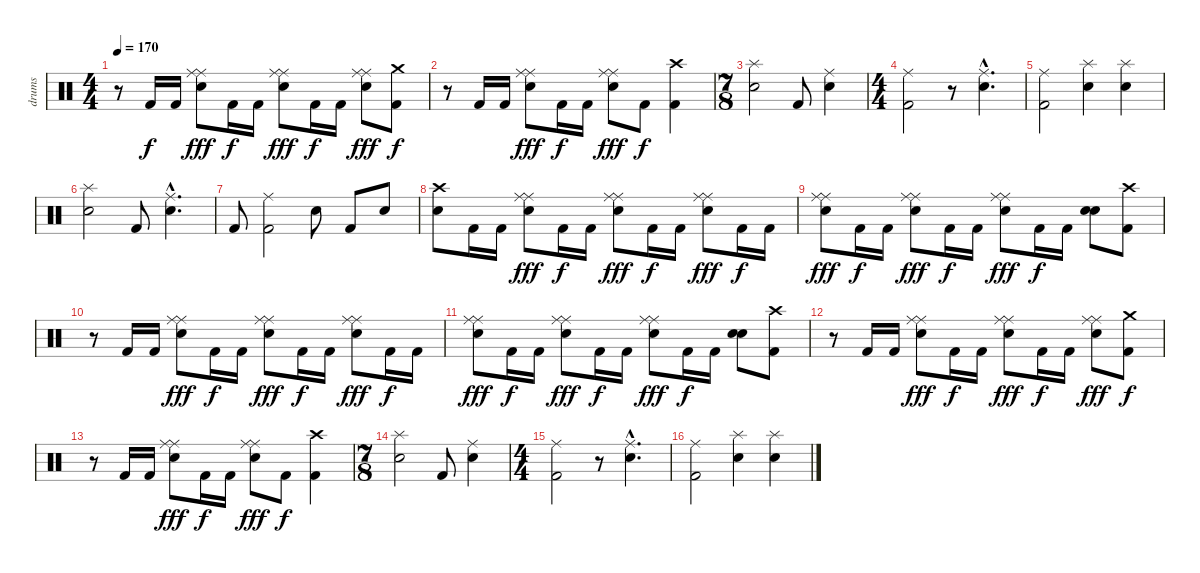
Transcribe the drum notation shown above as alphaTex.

\track ("drums" "drums") {instrument percussion}
\staff {score}
\articulation defaults
\ts (4 4)
\tempo 170
\clef neutral
\ks c
r.8{dy f} "Kick (hit) 2".16 "Kick (hit) 2".16 ("Ride (middle)" "Ride (middle)" "Snare (hit) 2").8{dy fff} "Kick (hit) 2".16{dy f} "Kick (hit) 2".16 ("Ride (middle)" "Ride (middle)" "Snare (hit) 2").8{dy fff} "Kick (hit) 2".16{dy f} "Kick (hit) 2".16 ("Ride (middle)" "Ride (middle)" "Snare (hit) 2").8{dy fff} ("Crash medium (hit)" "Kick (hit) 2").8{dy f} |
r.8 "Kick (hit) 2".16 "Kick (hit) 2".16 ("Ride (middle)" "Ride (middle)" "Snare (hit) 2").8{dy fff} "Kick (hit) 2".16{dy f} "Kick (hit) 2".16 ("Ride (middle)" "Ride (middle)" "Snare (hit) 2").8{dy fff} "Kick (hit) 2".8{dy f} ("Crash high (hit)" "Kick (hit) 2").4 |
\ts (7 8)
("Splash (hit)" "Snare (hit) 2").2 "Kick (hit) 2".8 ("Ride (middle)" "Snare (hit) 2").4 |
\ts (4 4)
("Ride (middle)" "Kick (hit) 2").2 r.8 ("Ride (middle)"{hac} "Snare (hit) 2"{hac}).4{d} |
("Ride (middle)" "Kick (hit) 2").2 ("Splash (hit)" "Snare (hit) 2").4 ("Splash (hit)" "Snare (hit) 2").4 |
("Splash (hit)" "Snare (hit) 2").2 "Kick (hit) 2".8 ("Ride (middle)"{hac} "Snare (hit) 2"{hac}).4{d} |
"Kick (hit) 2".8 ("Ride (middle)" "Kick (hit) 2").2 "Snare (hit) 2".8 "Kick (hit) 2".8 "Snare (hit) 2".8 |
("Crash high (hit)" "Snare (hit) 2").8 "Kick (hit) 2".16 "Kick (hit) 2".16 ("Ride (middle)" "Ride (middle)" "Snare (hit) 2").8{dy fff} "Kick (hit) 2".16{dy f} "Kick (hit) 2".16 ("Ride (middle)" "Ride (middle)" "Snare (hit) 2").8{dy fff} "Kick (hit) 2".16{dy f} "Kick (hit) 2".16 ("Ride (middle)" "Ride (middle)" "Snare (hit) 2").8{dy fff} "Kick (hit) 2".16{dy f} "Kick (hit) 2".16 |
("Ride (middle)" "Ride (middle)" "Snare (hit) 2").8{dy fff} "Kick (hit) 2".16{dy f} "Kick (hit) 2".16 ("Ride (middle)" "Ride (middle)" "Snare (hit) 2").8{dy fff} "Kick (hit) 2".16{dy f} "Kick (hit) 2".16 ("Ride (middle)" "Ride (middle)" "Snare (hit) 2").8{dy fff} "Kick (hit) 2".16{dy f} "Kick (hit) 2".16 ("Snare (hit) 2" "Snare (hit) 2").8 ("Crash high (hit)" "Kick (hit) 2").8 |
r.8 "Kick (hit) 2".16 "Kick (hit) 2".16 ("Ride (middle)" "Ride (middle)" "Snare (hit) 2").8{dy fff} "Kick (hit) 2".16{dy f} "Kick (hit) 2".16 ("Ride (middle)" "Ride (middle)" "Snare (hit) 2").8{dy fff} "Kick (hit) 2".16{dy f} "Kick (hit) 2".16 ("Ride (middle)" "Ride (middle)" "Snare (hit) 2").8{dy fff} "Kick (hit) 2".16{dy f} "Kick (hit) 2".16 |
("Ride (middle)" "Ride (middle)" "Snare (hit) 2").8{dy fff} "Kick (hit) 2".16{dy f} "Kick (hit) 2".16 ("Ride (middle)" "Ride (middle)" "Snare (hit) 2").8{dy fff} "Kick (hit) 2".16{dy f} "Kick (hit) 2".16 ("Ride (middle)" "Ride (middle)" "Snare (hit) 2").8{dy fff} "Kick (hit) 2".16{dy f} "Kick (hit) 2".16 ("Snare (hit) 2" "Snare (hit) 2").8 ("Crash high (hit)" "Kick (hit) 2").8 |
r.8 "Kick (hit) 2".16 "Kick (hit) 2".16 ("Ride (middle)" "Ride (middle)" "Snare (hit) 2").8{dy fff} "Kick (hit) 2".16{dy f} "Kick (hit) 2".16 ("Ride (middle)" "Ride (middle)" "Snare (hit) 2").8{dy fff} "Kick (hit) 2".16{dy f} "Kick (hit) 2".16 ("Ride (middle)" "Ride (middle)" "Snare (hit) 2").8{dy fff} ("Crash medium (hit)" "Kick (hit) 2").8{dy f} |
r.8 "Kick (hit) 2".16 "Kick (hit) 2".16 ("Ride (middle)" "Ride (middle)" "Snare (hit) 2").8{dy fff} "Kick (hit) 2".16{dy f} "Kick (hit) 2".16 ("Ride (middle)" "Ride (middle)" "Snare (hit) 2").8{dy fff} "Kick (hit) 2".8{dy f} ("Crash high (hit)" "Kick (hit) 2").4 |
\ts (7 8)
("Splash (hit)" "Snare (hit) 2").2 "Kick (hit) 2".8 ("Ride (middle)" "Snare (hit) 2").4 |
\ts (4 4)
("Ride (middle)" "Kick (hit) 2").2 r.8 ("Ride (middle)"{hac} "Snare (hit) 2"{hac}).4{d} |
("Ride (middle)" "Kick (hit) 2").2 ("Splash (hit)" "Snare (hit) 2").4 ("Splash (hit)" "Snare (hit) 2").4
